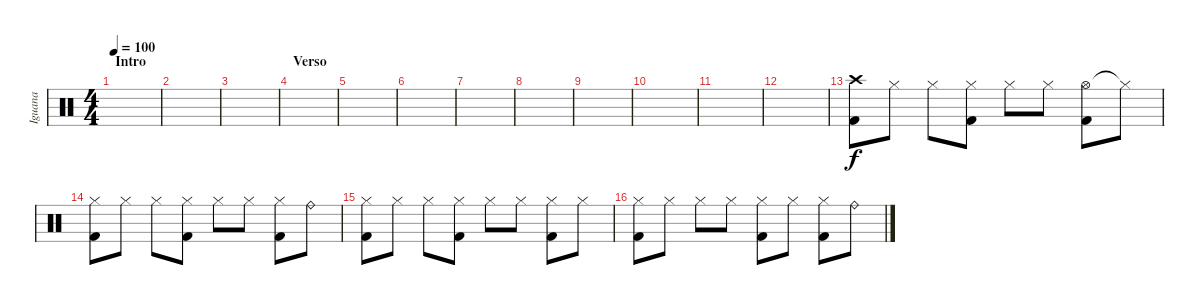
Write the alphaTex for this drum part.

\track ("Iguana" "Iguana") {instrument percussion}
\staff {score}
\articulation defaults
\ts (4 4)
\section ("" "Intro")
\tempo 100
\clef neutral
\ks c
|
|
|
\section ("" "Verso")
|
|
|
|
|
|
|
|
|
("Crash high (hit)" "Kick (hit) 2").8 "Hi-Hat (closed)".8 "Hi-Hat (closed)".8 ("Hi-Hat (closed)" "Kick (hit) 2").8 "Hi-Hat (closed)".8 "Hi-Hat (closed)".8 ("Hi-Hat (open)" "Kick (hit) 2").8 "Hi-Hat (closed)"{t}.8 |
("Hi-Hat (closed)" "Kick (hit) 2").8 "Hi-Hat (closed)".8 "Hi-Hat (closed)".8 ("Hi-Hat (closed)" "Kick (hit) 2").8 "Hi-Hat (closed)".8 "Hi-Hat (closed)".8 ("Hi-Hat (closed)" "Kick (hit) 2").8 "Ride (bell)".8 |
("Hi-Hat (closed)" "Kick (hit) 2").8 "Hi-Hat (closed)".8 "Hi-Hat (closed)".8 ("Hi-Hat (closed)" "Kick (hit) 2").8 "Hi-Hat (closed)".8 "Hi-Hat (closed)".8 ("Hi-Hat (closed)" "Kick (hit) 2").8 "Hi-Hat (closed)".8 |
("Hi-Hat (closed)" "Kick (hit) 2").8 "Hi-Hat (closed)".8 "Hi-Hat (closed)".8 "Hi-Hat (closed)".8 ("Hi-Hat (closed)" "Kick (hit) 2").8 "Hi-Hat (closed)".8 ("Hi-Hat (closed)" "Kick (hit) 2").8 "Ride (bell)".8
